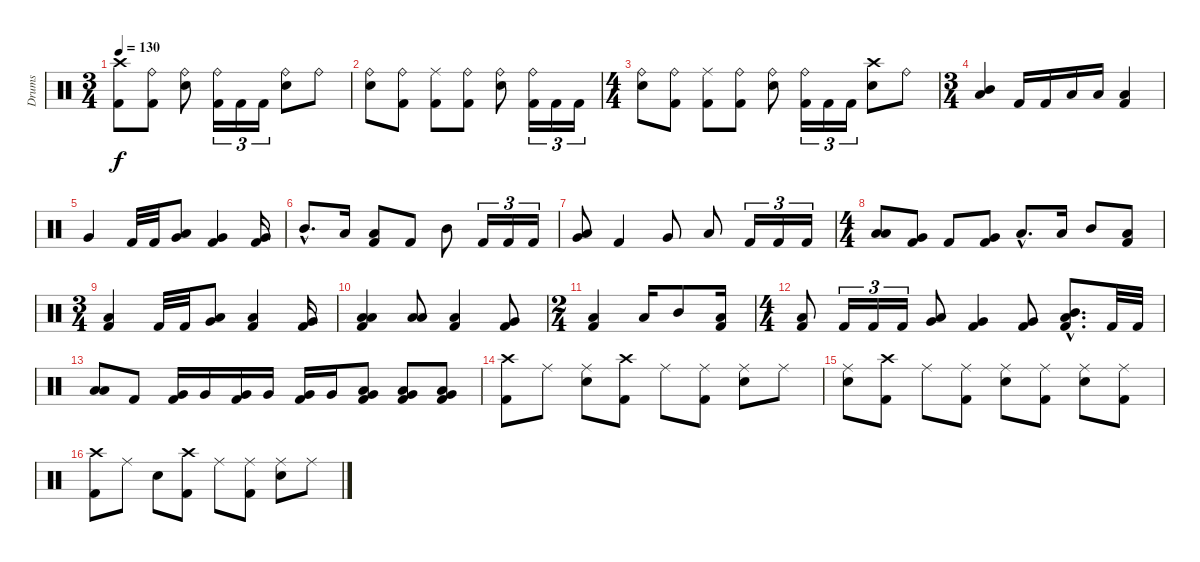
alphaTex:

\track ("Drums" "Drums") {instrument percussion}
\staff {score}
\articulation defaults
\ts (3 4)
\tempo 130
\clef neutral
\ks c
("Crash high (hit)" "Kick (hit) 2").8{dy f} ("Ride (bell)" "Kick (hit) 2").8 ("Ride (bell)" "Snare (hit) 2").8 ("Ride (bell)" "Kick (hit) 2").16{tu (3 2)} "Kick (hit) 2".16{tu (3 2)} "Kick (hit) 2".16{tu (3 2)} ("Ride (bell)" "Snare (hit) 2").8 "Ride (bell)".8 |
("Ride (bell)" "Snare (hit) 2").8 ("Ride (bell)" "Kick (hit) 2").8 ("Ride (middle)" "Kick (hit) 2").8 ("Ride (bell)" "Kick (hit) 2").8 ("Ride (bell)" "Snare (hit) 2").8 ("Ride (bell)" "Kick (hit) 2").16{tu (3 2)} "Kick (hit) 2".16{tu (3 2)} "Kick (hit) 2".16{tu (3 2)} |
\ts (4 4)
("Ride (bell)" "Snare (hit) 2").8 ("Ride (bell)" "Kick (hit) 2").8 ("Ride (middle)" "Kick (hit) 2").8 ("Ride (bell)" "Kick (hit) 2").8 ("Ride (bell)" "Snare (hit) 2").8 ("Ride (bell)" "Kick (hit) 2").16{tu (3 2)} "Kick (hit) 2".16{tu (3 2)} "Kick (hit) 2".16{tu (3 2)} ("Crash high (hit)" "Snare (hit) 2").8 "Ride (bell)".8 |
\ts (3 4)
("Mid Tom (hit)" "Low Floor Tom (hit)").4 "Kick (hit) 2".16 "Kick (hit) 2".16 "Low Tom (hit)".16 "Low Tom (hit)".16 ("Low Floor Tom (hit)" "Kick (hit) 2").4 |
"Very Low Tom (hit)".4 "Kick (hit) 2".32 "Kick (hit) 2".32 ("Low Floor Tom (hit)" "Very Low Tom (hit)").8 ("Very Low Tom (hit)" "Kick (hit) 2").4 ("Very Low Tom (hit)" "Kick (hit) 2").16 |
"Mid Tom (hit)"{hac}.8{d} "Low Tom (hit)".16 ("Low Floor Tom (hit)" "Kick (hit) 2").8 "Kick (hit) 2".8 "Mid Tom (hit)".8 "Kick (hit) 2".16{tu (3 2)} "Kick (hit) 2".16{tu (3 2)} "Kick (hit) 2".16{tu (3 2)} |
("Low Floor Tom (hit)" "Very Low Tom (hit)").8 "Kick (hit) 2".4 "Very Low Tom (hit)".8 "Low Floor Tom (hit)".8 "Kick (hit) 2".16{tu (3 2)} "Kick (hit) 2".16{tu (3 2)} "Kick (hit) 2".16{tu (3 2)} |
\ts (4 4)
("Low Tom (hit)" "Low Floor Tom (hit)").8 ("Very Low Tom (hit)" "Kick (hit) 2").8 "Kick (hit) 2".8 ("Very Low Tom (hit)" "Kick (hit) 2").8 "Low Floor Tom (hit)"{hac}.8{d} "Low Tom (hit)".16 "Mid Tom (hit)".8 ("Low Floor Tom (hit)" "Kick (hit) 2").8 |
\ts (3 4)
("Low Floor Tom (hit)" "Kick (hit) 2").4 "Kick (hit) 2".32 "Kick (hit) 2".32 ("Low Floor Tom (hit)" "Very Low Tom (hit)").8 ("Low Floor Tom (hit)" "Kick (hit) 2").4 ("Very Low Tom (hit)" "Kick (hit) 2").16 |
("Low Tom (hit)" "Low Floor Tom (hit)" "Kick (hit) 2").4 ("Low Tom (hit)" "Low Floor Tom (hit)").8 ("Low Tom (hit)" "Kick (hit) 2").4 ("Very Low Tom (hit)" "Kick (hit) 2").8 |
\ts (2 4)
("Low Floor Tom (hit)" "Kick (hit) 2").4 "Low Tom (hit)".16 "Mid Tom (hit)".8 ("Low Floor Tom (hit)" "Kick (hit) 2").16 |
\ts (4 4)
("Low Floor Tom (hit)" "Kick (hit) 2").8 "Kick (hit) 2".16{tu (3 2)} "Kick (hit) 2".16{tu (3 2)} "Kick (hit) 2".16{tu (3 2)} ("Low Floor Tom (hit)" "Very Low Tom (hit)").8 ("Very Low Tom (hit)" "Kick (hit) 2").4 ("Very Low Tom (hit)" "Kick (hit) 2").8 ("Mid Tom (hit)"{hac} "Low Floor Tom (hit)"{hac} "Kick (hit) 2"{hac}).8{d} "Kick (hit) 2".32 "Kick (hit) 2".32 |
("Low Tom (hit)" "Low Floor Tom (hit)").8 "Kick (hit) 2".8{volume 5} ("Very Low Tom (hit)" "Kick (hit) 2").16{volume 16} "Very Low Tom (hit)".16 ("Very Low Tom (hit)" "Kick (hit) 2").16 "Very Low Tom (hit)".16 ("Very Low Tom (hit)" "Kick (hit) 2").16 "Very Low Tom (hit)".16 ("Low Floor Tom (hit)" "Very Low Tom (hit)" "Kick (hit) 2").8 ("Low Floor Tom (hit)" "Very Low Tom (hit)" "Kick (hit) 2").8 ("Low Tom (hit)" "Very Low Tom (hit)" "Kick (hit) 2").8 |
("Crash high (hit)" "Kick (hit) 2").8 "Ride (middle)".8 ("Ride (middle)" "Snare (hit) 2").8 ("Crash high (hit)" "Kick (hit) 2").8 "Ride (middle)".8 ("Ride (middle)" "Kick (hit) 2").8 ("Ride (middle)" "Snare (hit) 2").8 "Ride (middle)".8 |
("Ride (middle)" "Snare (hit) 2").8 ("Crash high (hit)" "Kick (hit) 2").8 "Ride (middle)".8 ("Ride (middle)" "Kick (hit) 2").8 ("Ride (middle)" "Snare (hit) 2").8 ("Ride (middle)" "Kick (hit) 2").8 ("Ride (middle)" "Snare (hit) 2").8 ("Ride (middle)" "Kick (hit) 2").8 |
("Crash high (hit)" "Kick (hit) 2").8 "Ride (middle)".8 "Snare (hit) 2".8 ("Crash high (hit)" "Kick (hit) 2").8 "Ride (middle)".8 ("Ride (middle)" "Kick (hit) 2").8 ("Ride (middle)" "Snare (hit) 2").8 "Ride (middle)".8
